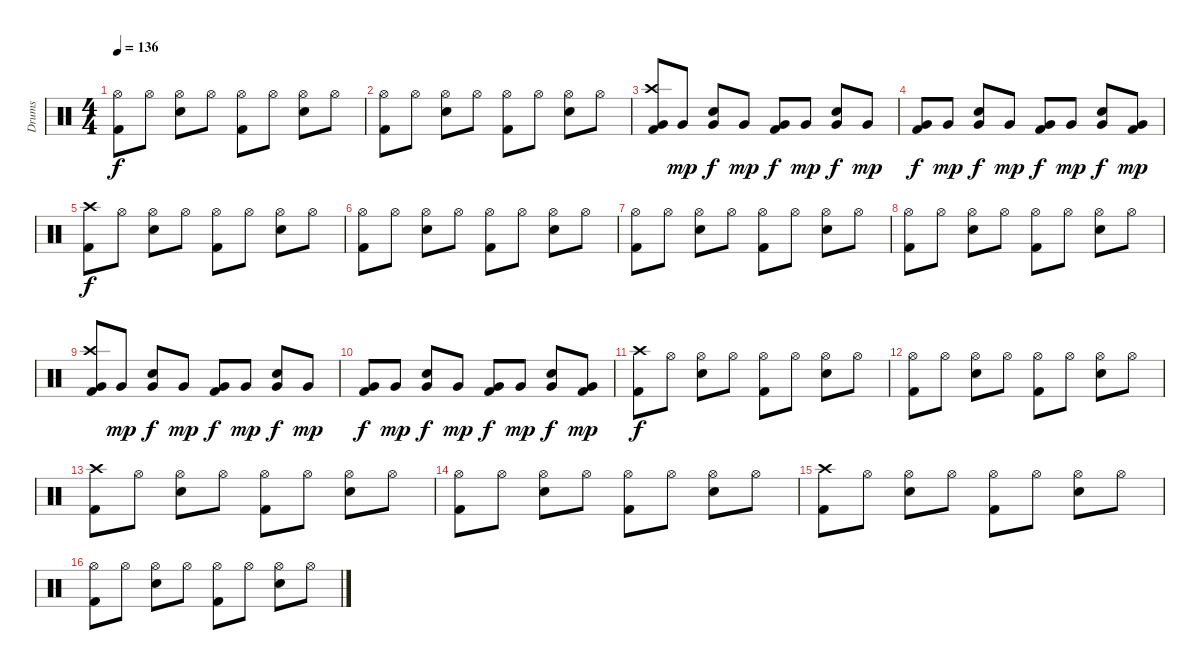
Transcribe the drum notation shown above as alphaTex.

\track ("Drums" "Drums") {instrument percussion}
\staff {score}
\articulation defaults
\ts (4 4)
\tempo 136
\clef neutral
\ks c
("Hi-Hat (open)" "Kick (hit) 2").8{dy f} "Hi-Hat (open)".8 ("Hi-Hat (open)" "Snare (hit) 2").8 "Hi-Hat (open)".8 ("Hi-Hat (open)" "Kick (hit) 2").8 "Hi-Hat (open)".8 ("Hi-Hat (open)" "Snare (hit) 2").8 "Hi-Hat (open)".8 |
("Hi-Hat (open)" "Kick (hit) 2").8 "Hi-Hat (open)".8 ("Hi-Hat (open)" "Snare (hit) 2").8 "Hi-Hat (open)".8 ("Hi-Hat (open)" "Kick (hit) 2").8 "Hi-Hat (open)".8 ("Hi-Hat (open)" "Snare (hit) 2").8 "Hi-Hat (open)".8 |
("Crash high (hit)" "Very Low Tom (hit)" "Kick (hit) 2").8 "Very Low Tom (hit)".8{dy mp} ("Very Low Tom (hit)" "Snare (hit) 2").8{dy f} "Very Low Tom (hit)".8{dy mp} ("Very Low Tom (hit)" "Kick (hit) 2").8{dy f} "Very Low Tom (hit)".8{dy mp} ("Very Low Tom (hit)" "Snare (hit) 2").8{dy f} "Very Low Tom (hit)".8{dy mp} |
("Very Low Tom (hit)" "Kick (hit) 2").8{dy f} "Very Low Tom (hit)".8{dy mp} ("Very Low Tom (hit)" "Snare (hit) 2").8{dy f} "Very Low Tom (hit)".8{dy mp} ("Very Low Tom (hit)" "Kick (hit) 2").8{dy f} "Very Low Tom (hit)".8{dy mp} ("Very Low Tom (hit)" "Snare (hit) 2").8{dy f} ("Very Low Tom (hit)" "Kick (hit) 2").8{dy mp} |
("Crash high (hit)" "Kick (hit) 2").8{dy f} "Hi-Hat (open)".8 ("Hi-Hat (open)" "Snare (hit) 2").8 "Hi-Hat (open)".8 ("Hi-Hat (open)" "Kick (hit) 2").8 "Hi-Hat (open)".8 ("Hi-Hat (open)" "Snare (hit) 2").8 "Hi-Hat (open)".8 |
("Hi-Hat (open)" "Kick (hit) 2").8 "Hi-Hat (open)".8 ("Hi-Hat (open)" "Snare (hit) 2").8 "Hi-Hat (open)".8 ("Hi-Hat (open)" "Kick (hit) 2").8 "Hi-Hat (open)".8 ("Hi-Hat (open)" "Snare (hit) 2").8 "Hi-Hat (open)".8 |
("Hi-Hat (open)" "Kick (hit) 2").8 "Hi-Hat (open)".8 ("Hi-Hat (open)" "Snare (hit) 2").8 "Hi-Hat (open)".8 ("Hi-Hat (open)" "Kick (hit) 2").8 "Hi-Hat (open)".8 ("Hi-Hat (open)" "Snare (hit) 2").8 "Hi-Hat (open)".8 |
("Hi-Hat (open)" "Kick (hit) 2").8 "Hi-Hat (open)".8 ("Hi-Hat (open)" "Snare (hit) 2").8 "Hi-Hat (open)".8 ("Hi-Hat (open)" "Kick (hit) 2").8 "Hi-Hat (open)".8 ("Hi-Hat (open)" "Snare (hit) 2").8 "Hi-Hat (open)".8 |
("Crash high (hit)" "Very Low Tom (hit)" "Kick (hit) 2").8 "Very Low Tom (hit)".8{dy mp} ("Very Low Tom (hit)" "Snare (hit) 2").8{dy f} "Very Low Tom (hit)".8{dy mp} ("Very Low Tom (hit)" "Kick (hit) 2").8{dy f} "Very Low Tom (hit)".8{dy mp} ("Very Low Tom (hit)" "Snare (hit) 2").8{dy f} "Very Low Tom (hit)".8{dy mp} |
("Very Low Tom (hit)" "Kick (hit) 2").8{dy f} "Very Low Tom (hit)".8{dy mp} ("Very Low Tom (hit)" "Snare (hit) 2").8{dy f} "Very Low Tom (hit)".8{dy mp} ("Very Low Tom (hit)" "Kick (hit) 2").8{dy f} "Very Low Tom (hit)".8{dy mp} ("Very Low Tom (hit)" "Snare (hit) 2").8{dy f} ("Very Low Tom (hit)" "Kick (hit) 2").8{dy mp} |
("Crash high (hit)" "Kick (hit) 2").8{dy f} "Hi-Hat (open)".8 ("Hi-Hat (open)" "Snare (hit) 2").8 "Hi-Hat (open)".8 ("Hi-Hat (open)" "Kick (hit) 2").8 "Hi-Hat (open)".8 ("Hi-Hat (open)" "Snare (hit) 2").8 "Hi-Hat (open)".8 |
("Hi-Hat (open)" "Kick (hit) 2").8 "Hi-Hat (open)".8 ("Hi-Hat (open)" "Snare (hit) 2").8 "Hi-Hat (open)".8 ("Hi-Hat (open)" "Kick (hit) 2").8 "Hi-Hat (open)".8 ("Hi-Hat (open)" "Snare (hit) 2").8 "Hi-Hat (open)".8 |
("Crash high (hit)" "Kick (hit) 2").8 "Hi-Hat (open)".8 ("Hi-Hat (open)" "Snare (hit) 2").8 "Hi-Hat (open)".8 ("Hi-Hat (open)" "Kick (hit) 2").8 "Hi-Hat (open)".8 ("Hi-Hat (open)" "Snare (hit) 2").8 "Hi-Hat (open)".8 |
("Hi-Hat (open)" "Kick (hit) 2").8 "Hi-Hat (open)".8 ("Hi-Hat (open)" "Snare (hit) 2").8 "Hi-Hat (open)".8 ("Hi-Hat (open)" "Kick (hit) 2").8 "Hi-Hat (open)".8 ("Hi-Hat (open)" "Snare (hit) 2").8 "Hi-Hat (open)".8 |
("Crash high (hit)" "Kick (hit) 2").8 "Hi-Hat (open)".8 ("Hi-Hat (open)" "Snare (hit) 2").8 "Hi-Hat (open)".8 ("Hi-Hat (open)" "Kick (hit) 2").8 "Hi-Hat (open)".8 ("Hi-Hat (open)" "Snare (hit) 2").8 "Hi-Hat (open)".8 |
("Hi-Hat (open)" "Kick (hit) 2").8 "Hi-Hat (open)".8 ("Hi-Hat (open)" "Snare (hit) 2").8 "Hi-Hat (open)".8 ("Hi-Hat (open)" "Kick (hit) 2").8 "Hi-Hat (open)".8 ("Hi-Hat (open)" "Snare (hit) 2").8 "Hi-Hat (open)".8
